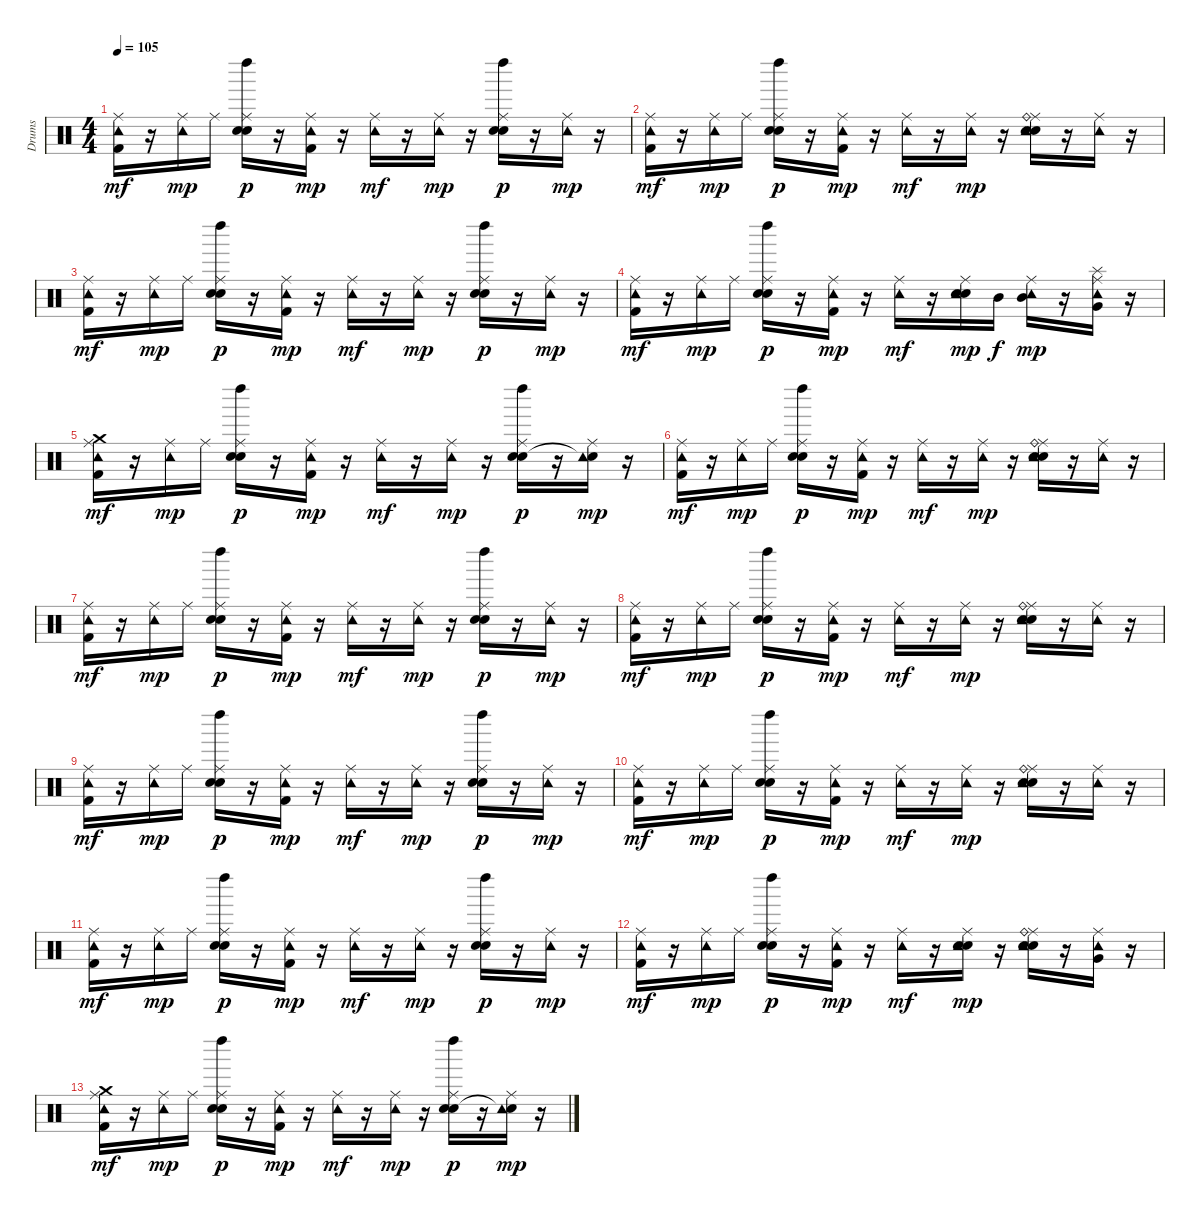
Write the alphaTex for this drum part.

\track ("Drums" "Drums") {instrument percussion}
\staff {score}
\articulation defaults
\ts (4 4)
\tempo 105
\clef neutral
\ks c
("Ride (middle)" "Tambourine (hit)" "Kick (hit) 2").16{dy mf} r.16 ("Ride (middle)" "Tambourine (hit)").16{dy mp} "Ride (middle)".16 ("Ride (middle)" "Electric Snare (hit)" "Snare (hit) 2" "Left Maraca (hit)").16{dy p} r.16 ("Ride (middle)" "Tambourine (hit)" "Kick (hit) 2").16{dy mp} r.16 ("Ride (middle)" "Tambourine (hit)").16{dy mf} r.16 ("Ride (middle)" "Tambourine (hit)").16{dy mp} r.16 ("Ride (middle)" "Electric Snare (hit)" "Snare (hit) 2" "Left Maraca (hit)").16{dy p} r.16 ("Ride (middle)" "Tambourine (hit)").16{dy mp} r.16 |
("Ride (middle)" "Tambourine (hit)" "Kick (hit) 2").16{dy mf} r.16 ("Ride (middle)" "Tambourine (hit)").16{dy mp} "Ride (middle)".16 ("Ride (middle)" "Electric Snare (hit)" "Snare (hit) 2" "Left Maraca (hit)").16{dy p} r.16 ("Ride (middle)" "Tambourine (hit)" "Kick (hit) 2").16{dy mp} r.16 ("Ride (middle)" "Tambourine (hit)").16{dy mf} r.16 ("Ride (middle)" "Tambourine (hit)").16{dy mp} r.16 ("Ride (middle)" "Ride (bell)" "Electric Snare (hit)" "Snare (hit) 2" "Tambourine (hit)").16 r.16 ("Ride (middle)" "Tambourine (hit)").16 r.16 |
("Ride (middle)" "Tambourine (hit)" "Kick (hit) 2").16{dy mf} r.16 ("Ride (middle)" "Tambourine (hit)").16{dy mp} "Ride (middle)".16 ("Ride (middle)" "Electric Snare (hit)" "Snare (hit) 2" "Left Maraca (hit)").16{dy p} r.16 ("Ride (middle)" "Tambourine (hit)" "Kick (hit) 2").16{dy mp} r.16 ("Ride (middle)" "Tambourine (hit)").16{dy mf} r.16 ("Ride (middle)" "Tambourine (hit)").16{dy mp} r.16 ("Ride (middle)" "Electric Snare (hit)" "Snare (hit) 2" "Left Maraca (hit)").16{dy p} r.16 ("Ride (middle)" "Tambourine (hit)").16{dy mp} r.16 |
("Ride (middle)" "Tambourine (hit)" "Kick (hit) 2").16{dy mf} r.16 ("Ride (middle)" "Tambourine (hit)").16{dy mp} "Ride (middle)".16 ("Ride (middle)" "Electric Snare (hit)" "Snare (hit) 2" "Left Maraca (hit)").16{dy p} r.16 ("Ride (middle)" "Tambourine (hit)" "Kick (hit) 2").16{dy mp} r.16 ("Ride (middle)" "Tambourine (hit)").16{dy mf} r.16 ("Ride (middle)" "Electric Snare (hit)" "Snare (hit) 2" "Tambourine (hit)").16{dy mp} "Mid Tom (hit)".16{dy f} ("Ride (middle)" "Mid Tom (hit)" "Tambourine (hit)").16{dy mp} r.16 ("Ride (middle)" "Splash (hit)" "Very Low Tom (hit)" "Tambourine (hit)").16 r.16 |
("Ride (middle)" "Crash medium (hit)" "Tambourine (hit)" "Kick (hit) 2").16{dy mf volume 6} r.16 ("Ride (middle)" "Tambourine (hit)").16{dy mp} "Ride (middle)".16 ("Ride (middle)" "Electric Snare (hit)" "Snare (hit) 2" "Left Maraca (hit)").16{dy p} r.16 ("Ride (middle)" "Tambourine (hit)" "Kick (hit) 2").16{dy mp} r.16 ("Ride (middle)" "Tambourine (hit)").16{dy mf} r.16 ("Ride (middle)" "Tambourine (hit)").16{dy mp} r.16 ("Ride (middle)" "Electric Snare (hit)" "Snare (hit) 2" "Left Maraca (hit)").16{dy p} r.16 ("Ride (middle)" "Snare (hit)"{t} "Tambourine (hit)").16{dy mp} r.16 |
("Ride (middle)" "Tambourine (hit)" "Kick (hit) 2").16{dy mf} r.16 ("Ride (middle)" "Tambourine (hit)").16{dy mp} "Ride (middle)".16 ("Ride (middle)" "Electric Snare (hit)" "Snare (hit) 2" "Left Maraca (hit)").16{dy p} r.16 ("Ride (middle)" "Tambourine (hit)" "Kick (hit) 2").16{dy mp} r.16 ("Ride (middle)" "Tambourine (hit)").16{dy mf} r.16 ("Ride (middle)" "Tambourine (hit)").16{dy mp} r.16 ("Ride (middle)" "Ride (bell)" "Electric Snare (hit)" "Snare (hit) 2" "Tambourine (hit)").16 r.16 ("Ride (middle)" "Tambourine (hit)").16 r.16 |
("Ride (middle)" "Tambourine (hit)" "Kick (hit) 2").16{dy mf} r.16 ("Ride (middle)" "Tambourine (hit)").16{dy mp} "Ride (middle)".16 ("Ride (middle)" "Electric Snare (hit)" "Snare (hit) 2" "Left Maraca (hit)").16{dy p} r.16 ("Ride (middle)" "Tambourine (hit)" "Kick (hit) 2").16{dy mp} r.16 ("Ride (middle)" "Tambourine (hit)").16{dy mf} r.16 ("Ride (middle)" "Tambourine (hit)").16{dy mp} r.16 ("Ride (middle)" "Electric Snare (hit)" "Snare (hit) 2" "Left Maraca (hit)").16{dy p} r.16 ("Ride (middle)" "Tambourine (hit)").16{dy mp} r.16 |
("Ride (middle)" "Tambourine (hit)" "Kick (hit) 2").16{dy mf} r.16 ("Ride (middle)" "Tambourine (hit)").16{dy mp} "Ride (middle)".16 ("Ride (middle)" "Electric Snare (hit)" "Snare (hit) 2" "Left Maraca (hit)").16{dy p} r.16 ("Ride (middle)" "Tambourine (hit)" "Kick (hit) 2").16{dy mp} r.16 ("Ride (middle)" "Tambourine (hit)").16{dy mf} r.16 ("Ride (middle)" "Tambourine (hit)").16{dy mp} r.16 ("Ride (middle)" "Ride (bell)" "Electric Snare (hit)" "Snare (hit) 2" "Tambourine (hit)").16 r.16 ("Ride (middle)" "Tambourine (hit)").16 r.16 |
("Ride (middle)" "Tambourine (hit)" "Kick (hit) 2").16{dy mf} r.16 ("Ride (middle)" "Tambourine (hit)").16{dy mp} "Ride (middle)".16 ("Ride (middle)" "Electric Snare (hit)" "Snare (hit) 2" "Left Maraca (hit)").16{dy p} r.16 ("Ride (middle)" "Tambourine (hit)" "Kick (hit) 2").16{dy mp} r.16 ("Ride (middle)" "Tambourine (hit)").16{dy mf} r.16 ("Ride (middle)" "Tambourine (hit)").16{dy mp} r.16 ("Ride (middle)" "Electric Snare (hit)" "Snare (hit) 2" "Left Maraca (hit)").16{dy p} r.16 ("Ride (middle)" "Tambourine (hit)").16{dy mp} r.16 |
("Ride (middle)" "Tambourine (hit)" "Kick (hit) 2").16{dy mf volume 0} r.16 ("Ride (middle)" "Tambourine (hit)").16{dy mp} "Ride (middle)".16 ("Ride (middle)" "Electric Snare (hit)" "Snare (hit) 2" "Left Maraca (hit)").16{dy p} r.16 ("Ride (middle)" "Tambourine (hit)" "Kick (hit) 2").16{dy mp} r.16 ("Ride (middle)" "Tambourine (hit)").16{dy mf} r.16 ("Ride (middle)" "Tambourine (hit)").16{dy mp} r.16 ("Ride (middle)" "Ride (bell)" "Electric Snare (hit)" "Snare (hit) 2" "Tambourine (hit)").16 r.16 ("Ride (middle)" "Tambourine (hit)").16 r.16 |
("Ride (middle)" "Tambourine (hit)" "Kick (hit) 2").16{dy mf} r.16 ("Ride (middle)" "Tambourine (hit)").16{dy mp} "Ride (middle)".16 ("Ride (middle)" "Electric Snare (hit)" "Snare (hit) 2" "Left Maraca (hit)").16{dy p} r.16 ("Ride (middle)" "Tambourine (hit)" "Kick (hit) 2").16{dy mp} r.16 ("Ride (middle)" "Tambourine (hit)").16{dy mf} r.16 ("Ride (middle)" "Tambourine (hit)").16{dy mp} r.16 ("Ride (middle)" "Electric Snare (hit)" "Snare (hit) 2" "Left Maraca (hit)").16{dy p} r.16 ("Ride (middle)" "Tambourine (hit)").16{dy mp} r.16 |
("Ride (middle)" "Tambourine (hit)" "Kick (hit) 2").16{dy mf} r.16 ("Ride (middle)" "Tambourine (hit)").16{dy mp} "Ride (middle)".16 ("Ride (middle)" "Electric Snare (hit)" "Snare (hit) 2" "Left Maraca (hit)").16{dy p} r.16 ("Ride (middle)" "Tambourine (hit)" "Kick (hit) 2").16{dy mp} r.16 ("Ride (middle)" "Tambourine (hit)").16{dy mf} r.16 ("Ride (middle)" "Electric Snare (hit)" "Snare (hit) 2" "Tambourine (hit)").16{dy mp} r.16 ("Ride (middle)" "Ride (bell)" "Electric Snare (hit)" "Snare (hit) 2" "Tambourine (hit)").16 r.16 ("Ride (middle)" "Very Low Tom (hit)" "Tambourine (hit)").16 r.16 |
("Ride (middle)" "Crash medium (hit)" "Tambourine (hit)" "Kick (hit) 2").16{dy mf} r.16 ("Ride (middle)" "Tambourine (hit)").16{dy mp} "Ride (middle)".16 ("Ride (middle)" "Electric Snare (hit)" "Snare (hit) 2" "Left Maraca (hit)").16{dy p} r.16 ("Ride (middle)" "Tambourine (hit)" "Kick (hit) 2").16{dy mp} r.16 ("Ride (middle)" "Tambourine (hit)").16{dy mf} r.16 ("Ride (middle)" "Tambourine (hit)").16{dy mp} r.16 ("Ride (middle)" "Electric Snare (hit)" "Snare (hit) 2" "Left Maraca (hit)").16{dy p} r.16 ("Ride (middle)" "Snare (hit)"{t} "Tambourine (hit)").16{dy mp} r.16
